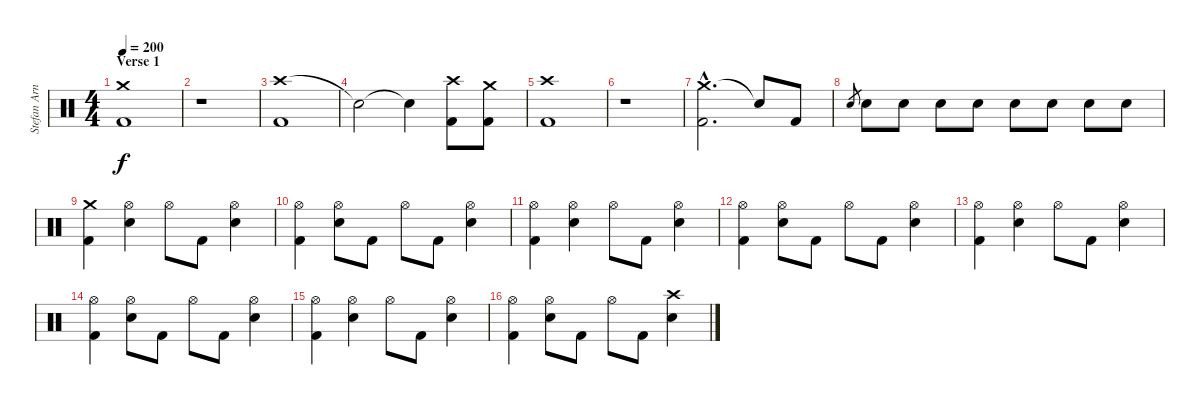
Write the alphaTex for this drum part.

\track ("Stefan Arnold" "Stefan Arn") {instrument percussion}
\staff {score}
\articulation defaults
\ts (4 4)
\section ("" "Verse 1")
\tempo 200
\clef neutral
\ks c
("Crash medium (hit)" "Kick (hit) 2").1{dy f} |
r.1 |
("Crash high (hit)" "Kick (hit) 2").1 |
"Snare (hit)"{t}.2 "Snare (hit)"{t}.4 ("Crash high (hit)" "Kick (hit) 2").8 ("Crash medium (hit)" "Kick (hit) 2").8 |
("Crash high (hit)" "Kick (hit) 2").1 |
r.1 |
("Crash medium (hit)"{hac} "Kick (hit) 2"{hac}).2{d} "Snare (hit)"{t}.8 "Kick (hit) 2".8 |
"Electric Snare (hit)".8{gr} "Electric Snare (hit)".8 "Electric Snare (hit)".8 "Electric Snare (hit)".8 "Electric Snare (hit)".8 "Electric Snare (hit)".8 "Electric Snare (hit)".8 "Electric Snare (hit)".8 "Electric Snare (hit)".8 |
("Crash medium (hit)" "Kick (hit) 2").4 ("Hi-Hat (open)" "Electric Snare (hit)").4 "Hi-Hat (open)".8 "Kick (hit) 2".8 ("Hi-Hat (open)" "Electric Snare (hit)").4 |
("Hi-Hat (open)" "Kick (hit) 2").4 ("Hi-Hat (open)" "Electric Snare (hit)").8 "Kick (hit) 2".8 "Hi-Hat (open)".8 "Kick (hit) 2".8 ("Hi-Hat (open)" "Electric Snare (hit)").4 |
("Hi-Hat (open)" "Kick (hit) 2").4 ("Hi-Hat (open)" "Electric Snare (hit)").4 "Hi-Hat (open)".8 "Kick (hit) 2".8 ("Hi-Hat (open)" "Electric Snare (hit)").4 |
("Hi-Hat (open)" "Kick (hit) 2").4 ("Hi-Hat (open)" "Electric Snare (hit)").8 "Kick (hit) 2".8 "Hi-Hat (open)".8 "Kick (hit) 2".8 ("Hi-Hat (open)" "Electric Snare (hit)").4 |
("Hi-Hat (open)" "Kick (hit) 2").4 ("Hi-Hat (open)" "Electric Snare (hit)").4 "Hi-Hat (open)".8 "Kick (hit) 2".8 ("Hi-Hat (open)" "Electric Snare (hit)").4 |
("Hi-Hat (open)" "Kick (hit) 2").4 ("Hi-Hat (open)" "Electric Snare (hit)").8 "Kick (hit) 2".8 "Hi-Hat (open)".8 "Kick (hit) 2".8 ("Hi-Hat (open)" "Electric Snare (hit)").4 |
("Hi-Hat (open)" "Kick (hit) 2").4 ("Hi-Hat (open)" "Electric Snare (hit)").4 "Hi-Hat (open)".8 "Kick (hit) 2".8 ("Hi-Hat (open)" "Electric Snare (hit)").4 |
("Hi-Hat (open)" "Kick (hit) 2").4 ("Hi-Hat (open)" "Electric Snare (hit)").8 "Kick (hit) 2".8 "Hi-Hat (open)".8 "Kick (hit) 2".8 ("Crash high (hit)" "Electric Snare (hit)").4
